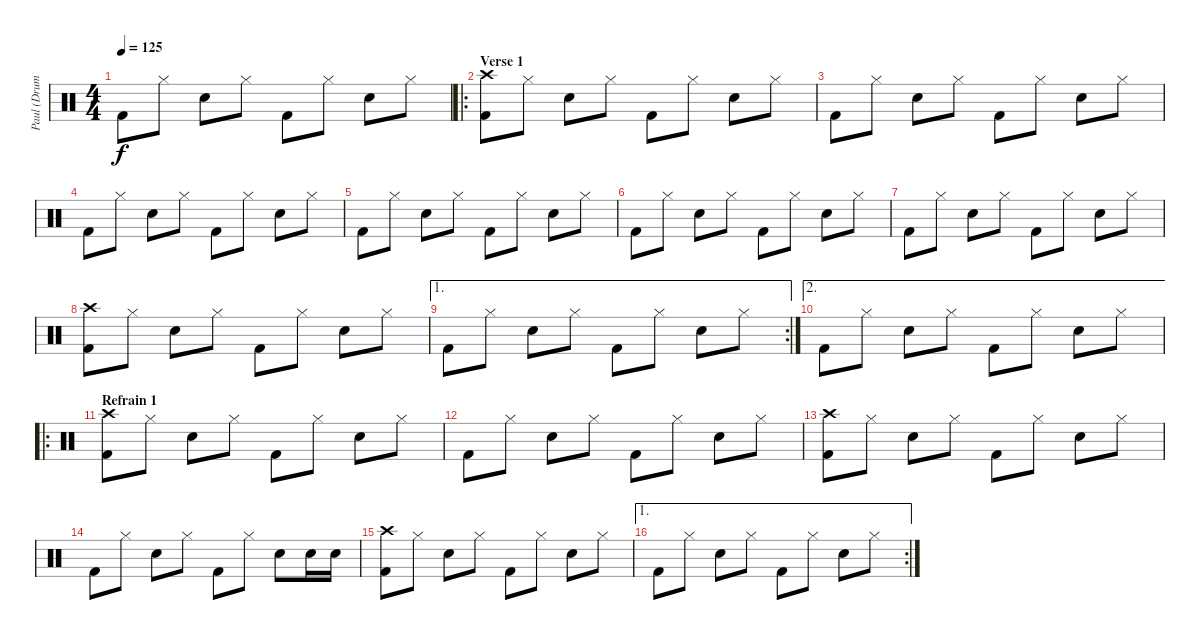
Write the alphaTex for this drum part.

\track ("Paul (Drums)" "Paul (Drum") {instrument percussion}
\staff {score}
\articulation defaults
\ts (4 4)
\tempo 125
\clef neutral
\ks c "Kick (hit) 2".8{dy f} "Hi-Hat (closed)".8 "Snare (hit) 2".8 "Hi-Hat (closed)".8 "Kick (hit) 2".8 "Hi-Hat (closed)".8 "Snare (hit) 2".8 "Hi-Hat (closed)".8
|
\ro
\section ("" "Verse 1")
("Crash high (hit)" "Kick (hit) 2").8 "Hi-Hat (closed)".8 "Snare (hit) 2".8 "Hi-Hat (closed)".8 "Kick (hit) 2".8 "Hi-Hat (closed)".8 "Snare (hit) 2".8 "Hi-Hat (closed)".8 |
"Kick (hit) 2".8 "Hi-Hat (closed)".8 "Snare (hit) 2".8 "Hi-Hat (closed)".8 "Kick (hit) 2".8 "Hi-Hat (closed)".8 "Snare (hit) 2".8 "Hi-Hat (closed)".8 |
"Kick (hit) 2".8 "Hi-Hat (closed)".8 "Snare (hit) 2".8 "Hi-Hat (closed)".8 "Kick (hit) 2".8 "Hi-Hat (closed)".8 "Snare (hit) 2".8 "Hi-Hat (closed)".8 |
"Kick (hit) 2".8 "Hi-Hat (closed)".8 "Snare (hit) 2".8 "Hi-Hat (closed)".8 "Kick (hit) 2".8 "Hi-Hat (closed)".8 "Snare (hit) 2".8 "Hi-Hat (closed)".8 |
"Kick (hit) 2".8 "Hi-Hat (closed)".8 "Snare (hit) 2".8 "Hi-Hat (closed)".8 "Kick (hit) 2".8 "Hi-Hat (closed)".8 "Snare (hit) 2".8 "Hi-Hat (closed)".8 |
"Kick (hit) 2".8 "Hi-Hat (closed)".8 "Snare (hit) 2".8 "Hi-Hat (closed)".8 "Kick (hit) 2".8 "Hi-Hat (closed)".8 "Snare (hit) 2".8 "Hi-Hat (closed)".8 |
("Crash high (hit)" "Kick (hit) 2").8 "Hi-Hat (closed)".8 "Snare (hit) 2".8 "Hi-Hat (closed)".8 "Kick (hit) 2".8 "Hi-Hat (closed)".8 "Snare (hit) 2".8 "Hi-Hat (closed)".8 |
\ae 1
\rc 2 "Kick (hit) 2".8 "Hi-Hat (closed)".8 "Snare (hit) 2".8 "Hi-Hat (closed)".8 "Kick (hit) 2".8 "Hi-Hat (closed)".8 "Snare (hit) 2".8 "Hi-Hat (closed)".8
|
\ae 2 "Kick (hit) 2".8 "Hi-Hat (closed)".8 "Snare (hit) 2".8 "Hi-Hat (closed)".8 "Kick (hit) 2".8 "Hi-Hat (closed)".8 "Snare (hit) 2".8 "Hi-Hat (closed)".8
|
\ro
\section ("" "Refrain 1")
("Crash high (hit)" "Kick (hit) 2").8 "Hi-Hat (closed)".8 "Snare (hit) 2".8 "Hi-Hat (closed)".8 "Kick (hit) 2".8 "Hi-Hat (closed)".8 "Snare (hit) 2".8 "Hi-Hat (closed)".8 |
"Kick (hit) 2".8 "Hi-Hat (closed)".8 "Snare (hit) 2".8 "Hi-Hat (closed)".8 "Kick (hit) 2".8 "Hi-Hat (closed)".8 "Snare (hit) 2".8 "Hi-Hat (closed)".8 |
("Crash high (hit)" "Kick (hit) 2").8 "Hi-Hat (closed)".8 "Snare (hit) 2".8 "Hi-Hat (closed)".8 "Kick (hit) 2".8 "Hi-Hat (closed)".8 "Snare (hit) 2".8 "Hi-Hat (closed)".8 |
"Kick (hit) 2".8 "Hi-Hat (closed)".8 "Snare (hit) 2".8 "Hi-Hat (closed)".8 "Kick (hit) 2".8 "Hi-Hat (closed)".8 "Snare (hit) 2".8 "Snare (hit) 2".16 "Snare (hit) 2".16 |
("Crash high (hit)" "Kick (hit) 2").8 "Hi-Hat (closed)".8 "Snare (hit) 2".8 "Hi-Hat (closed)".8 "Kick (hit) 2".8 "Hi-Hat (closed)".8 "Snare (hit) 2".8 "Hi-Hat (closed)".8 |
\ae 1
\rc 2 "Kick (hit) 2".8 "Hi-Hat (closed)".8 "Snare (hit) 2".8 "Hi-Hat (closed)".8 "Kick (hit) 2".8 "Hi-Hat (closed)".8 "Snare (hit) 2".8 "Hi-Hat (closed)".8
